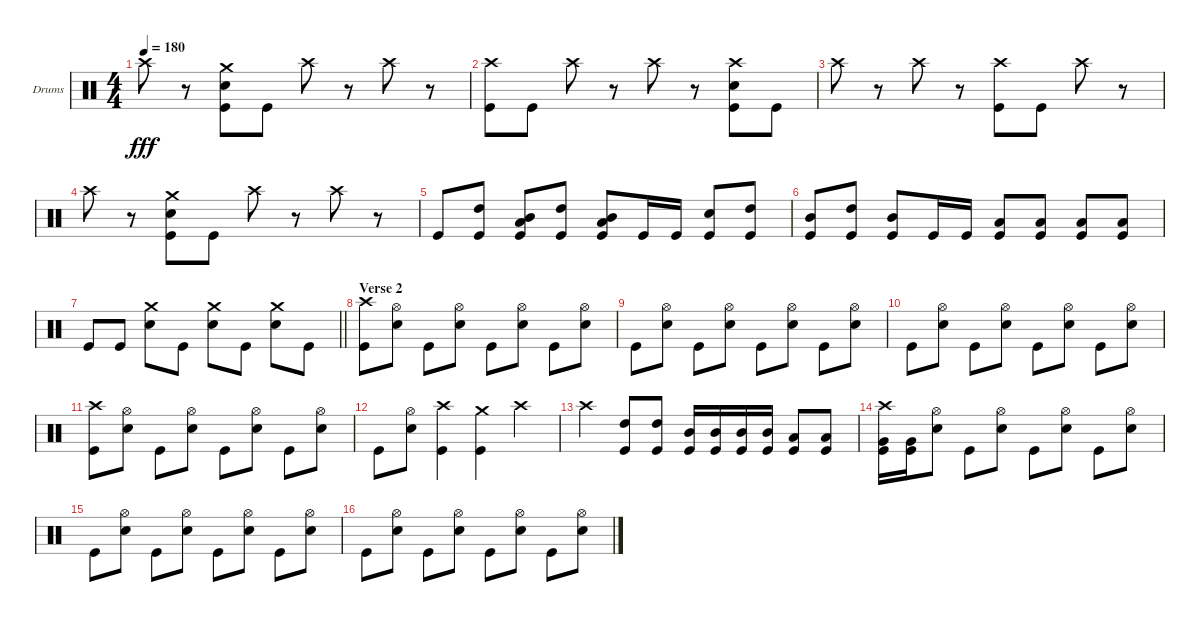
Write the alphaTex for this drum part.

\bracketExtendMode groupsimilarinstruments
\firstSystemTrackNameOrientation horizontal
\otherSystemsTrackNameOrientation horizontal
\track ("Drumkit" "Drums") {instrument percussion}
\staff {score}
\articulation defaults
\ts (4 4)
\tempo 180
\clef neutral
\ks c "Crash high (hit)".8{dy fff}
r.8 ("Crash medium (hit)" "Snare (hit) 2" "Kick (hit)").8 "Kick (hit)".8 "Crash high (hit)".8 r.8 "Crash high (hit)".8 r.8 |
("Crash high (hit)" "Kick (hit)").8 "Kick (hit)".8 "Crash high (hit)".8 r.8 "Crash high (hit)".8 r.8 ("Crash high (hit)" "Snare (hit) 2" "Kick (hit)").8 "Kick (hit)".8 |
"Crash high (hit)".8 r.8 "Crash high (hit)".8 r.8 ("Crash high (hit)" "Kick (hit)").8 "Kick (hit)".8 "Crash high (hit)".8 r.8 |
"Crash high (hit)".8 r.8 ("Crash medium (hit)" "Snare (hit) 2" "Kick (hit)").8 "Kick (hit)".8 "Crash high (hit)".8 r.8 "Crash high (hit)".8 r.8 |
"Kick (hit)".8 ("High Tom (hit)" "Kick (hit)").8 ("Low Tom (hit)" "Mid Tom (hit)" "Kick (hit)").8 ("High Tom (hit)" "Kick (hit)").8 ("Low Tom (hit)" "Mid Tom (hit)" "Kick (hit)").8 "Kick (hit)".16 "Kick (hit)".16 ("Snare (hit) 2" "Kick (hit)").8 ("High Tom (hit)" "Kick (hit)").8 |
("Mid Tom (hit)" "Kick (hit)").8 ("High Tom (hit)" "Kick (hit)").8 ("Mid Tom (hit)" "Kick (hit)").8 "Kick (hit)".16 "Kick (hit)".16 ("Low Tom (hit)" "Kick (hit)").8 ("Low Tom (hit)" "Kick (hit)").8 ("Low Tom (hit)" "Kick (hit)").8 ("Low Tom (hit)" "Kick (hit)").8 |
\barLineRight lightlight "Kick (hit)".8 "Kick (hit)".8
("Crash medium (hit)" "Snare (hit) 2").8 "Kick (hit)".8 ("Crash medium (hit)" "Snare (hit) 2").8 "Kick (hit)".8 ("Crash medium (hit)" "Snare (hit) 2").8 "Kick (hit)".8 |
\section ("" "Verse 2")
("Crash high (hit)" "Kick (hit)").8 ("Hi-Hat (open)" "Snare (hit) 2").8 "Kick (hit)".8 ("Hi-Hat (open)" "Snare (hit) 2").8 "Kick (hit)".8 ("Hi-Hat (open)" "Snare (hit) 2").8 "Kick (hit)".8 ("Hi-Hat (open)" "Snare (hit) 2").8 |
"Kick (hit)".8 ("Hi-Hat (open)" "Snare (hit) 2").8 "Kick (hit)".8 ("Hi-Hat (open)" "Snare (hit) 2").8 "Kick (hit)".8 ("Hi-Hat (open)" "Snare (hit) 2").8 "Kick (hit)".8 ("Hi-Hat (open)" "Snare (hit) 2").8 |
"Kick (hit)".8 ("Hi-Hat (open)" "Snare (hit) 2").8 "Kick (hit)".8 ("Hi-Hat (open)" "Snare (hit) 2").8 "Kick (hit)".8 ("Hi-Hat (open)" "Snare (hit) 2").8 "Kick (hit)".8 ("Hi-Hat (open)" "Snare (hit) 2").8 |
("Crash high (hit)" "Kick (hit)").8 ("Hi-Hat (open)" "Snare (hit) 2").8 "Kick (hit)".8 ("Hi-Hat (open)" "Snare (hit) 2").8 "Kick (hit)".8 ("Hi-Hat (open)" "Snare (hit) 2").8 "Kick (hit)".8 ("Hi-Hat (open)" "Snare (hit) 2").8 |
"Kick (hit)".8 ("Hi-Hat (open)" "Snare (hit) 2").8 ("Crash high (hit)" "Kick (hit)").4 ("Crash medium (hit)" "Kick (hit)").4 "Crash high (hit)".4 |
"Crash high (hit)".4 ("High Tom (hit)" "Kick (hit)").8 ("High Tom (hit)" "Kick (hit)").8 ("Mid Tom (hit)" "Kick (hit)").16 ("Mid Tom (hit)" "Kick (hit)").16 ("Mid Tom (hit)" "Kick (hit)").16 ("Mid Tom (hit)" "Kick (hit)").16 ("Low Tom (hit)" "Kick (hit)").8 ("Low Tom (hit)" "Kick (hit)").8 |
("Crash high (hit)" "Very Low Tom (hit)" "Kick (hit)").16 ("Very Low Tom (hit)" "Kick (hit)").16 ("Hi-Hat (open)" "Snare (hit) 2").8 "Kick (hit)".8 ("Hi-Hat (open)" "Snare (hit) 2").8 "Kick (hit)".8 ("Hi-Hat (open)" "Snare (hit) 2").8 "Kick (hit)".8 ("Hi-Hat (open)" "Snare (hit) 2").8 |
"Kick (hit)".8 ("Hi-Hat (open)" "Snare (hit) 2").8 "Kick (hit)".8 ("Hi-Hat (open)" "Snare (hit) 2").8 "Kick (hit)".8 ("Hi-Hat (open)" "Snare (hit) 2").8 "Kick (hit)".8 ("Hi-Hat (open)" "Snare (hit) 2").8 |
"Kick (hit)".8 ("Hi-Hat (open)" "Snare (hit) 2").8 "Kick (hit)".8 ("Hi-Hat (open)" "Snare (hit) 2").8 "Kick (hit)".8 ("Hi-Hat (open)" "Snare (hit) 2").8 "Kick (hit)".8 ("Hi-Hat (open)" "Snare (hit) 2").8
